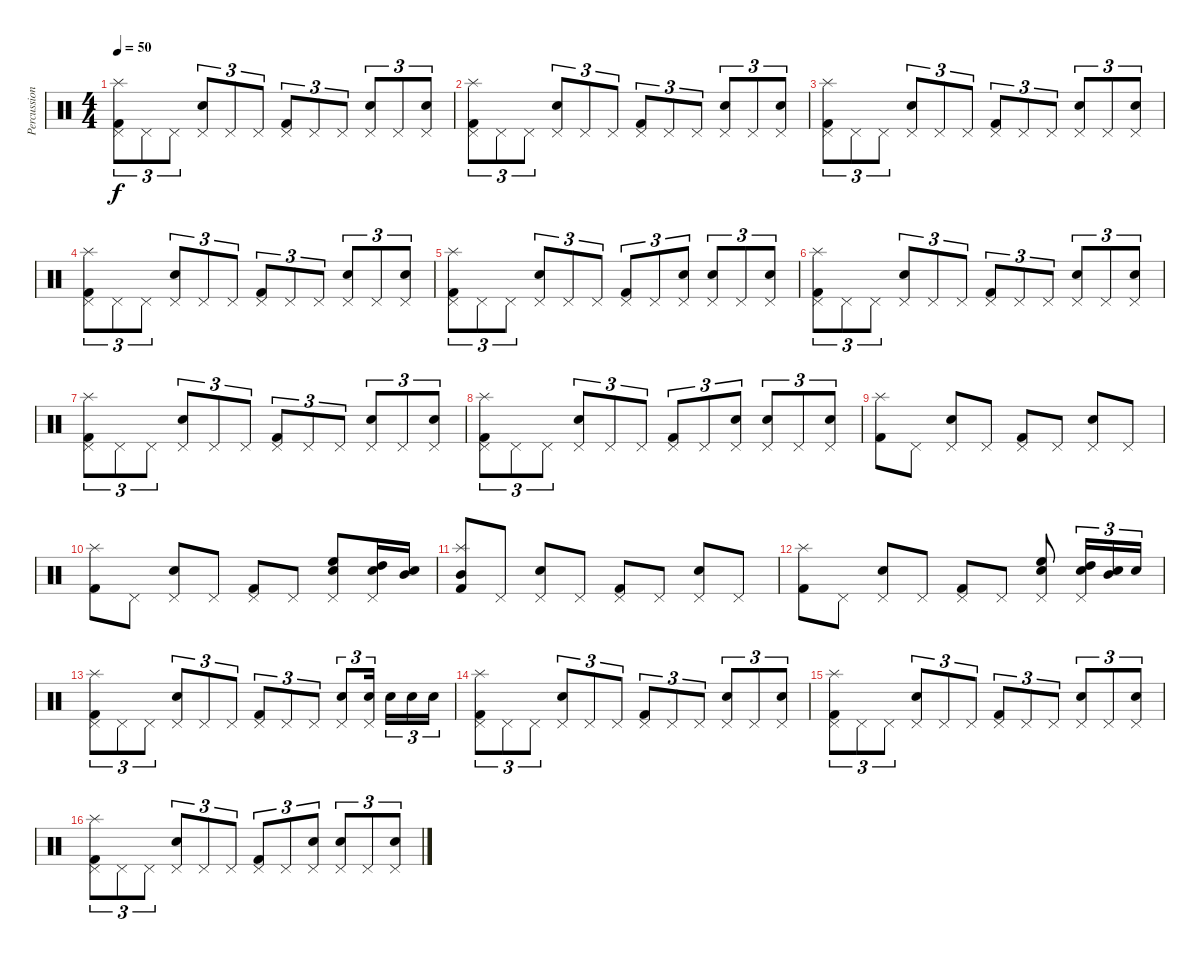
\track ("Percussion" "Percussion") {instrument percussion}
\staff {score}
\articulation defaults
\ts (4 4)
\tempo 50
\clef neutral
\ks c
("Pedal Hi-Hat (hit)" "Kick (hit) 2" "Splash (hit)").8{tu (3 2) dy f} "Pedal Hi-Hat (hit)".8{tu (3 2)} "Pedal Hi-Hat (hit)".8{tu (3 2)} ("Pedal Hi-Hat (hit)" "Electric Snare (hit)").8{tu (3 2)} "Pedal Hi-Hat (hit)".8{tu (3 2)} "Pedal Hi-Hat (hit)".8{tu (3 2)} ("Pedal Hi-Hat (hit)" "Kick (hit) 2").8{tu (3 2)} "Pedal Hi-Hat (hit)".8{tu (3 2)} "Pedal Hi-Hat (hit)".8{tu (3 2)} ("Pedal Hi-Hat (hit)" "Electric Snare (hit)").8{tu (3 2)} "Pedal Hi-Hat (hit)".8{tu (3 2)} ("Pedal Hi-Hat (hit)" "Electric Snare (hit)").8{tu (3 2)} |
("Pedal Hi-Hat (hit)" "Kick (hit) 2" "Splash (hit)").8{tu (3 2)} "Pedal Hi-Hat (hit)".8{tu (3 2)} "Pedal Hi-Hat (hit)".8{tu (3 2)} ("Pedal Hi-Hat (hit)" "Electric Snare (hit)").8{tu (3 2)} "Pedal Hi-Hat (hit)".8{tu (3 2)} "Pedal Hi-Hat (hit)".8{tu (3 2)} ("Pedal Hi-Hat (hit)" "Kick (hit) 2").8{tu (3 2)} "Pedal Hi-Hat (hit)".8{tu (3 2)} "Pedal Hi-Hat (hit)".8{tu (3 2)} ("Pedal Hi-Hat (hit)" "Electric Snare (hit)").8{tu (3 2)} "Pedal Hi-Hat (hit)".8{tu (3 2)} ("Pedal Hi-Hat (hit)" "Electric Snare (hit)").8{tu (3 2)} |
("Pedal Hi-Hat (hit)" "Kick (hit) 2" "Splash (hit)").8{tu (3 2)} "Pedal Hi-Hat (hit)".8{tu (3 2)} "Pedal Hi-Hat (hit)".8{tu (3 2)} ("Pedal Hi-Hat (hit)" "Electric Snare (hit)").8{tu (3 2)} "Pedal Hi-Hat (hit)".8{tu (3 2)} "Pedal Hi-Hat (hit)".8{tu (3 2)} ("Pedal Hi-Hat (hit)" "Kick (hit) 2").8{tu (3 2)} "Pedal Hi-Hat (hit)".8{tu (3 2)} "Pedal Hi-Hat (hit)".8{tu (3 2)} ("Pedal Hi-Hat (hit)" "Electric Snare (hit)").8{tu (3 2)} "Pedal Hi-Hat (hit)".8{tu (3 2)} ("Pedal Hi-Hat (hit)" "Electric Snare (hit)").8{tu (3 2)} |
("Pedal Hi-Hat (hit)" "Kick (hit) 2" "Splash (hit)").8{tu (3 2)} "Pedal Hi-Hat (hit)".8{tu (3 2)} "Pedal Hi-Hat (hit)".8{tu (3 2)} ("Pedal Hi-Hat (hit)" "Electric Snare (hit)").8{tu (3 2)} "Pedal Hi-Hat (hit)".8{tu (3 2)} "Pedal Hi-Hat (hit)".8{tu (3 2)} ("Pedal Hi-Hat (hit)" "Kick (hit) 2").8{tu (3 2)} "Pedal Hi-Hat (hit)".8{tu (3 2)} "Pedal Hi-Hat (hit)".8{tu (3 2)} ("Pedal Hi-Hat (hit)" "Electric Snare (hit)").8{tu (3 2)} "Pedal Hi-Hat (hit)".8{tu (3 2)} ("Pedal Hi-Hat (hit)" "Electric Snare (hit)").8{tu (3 2)} |
("Pedal Hi-Hat (hit)" "Kick (hit) 2" "Splash (hit)").8{tu (3 2)} "Pedal Hi-Hat (hit)".8{tu (3 2)} "Pedal Hi-Hat (hit)".8{tu (3 2)} ("Pedal Hi-Hat (hit)" "Electric Snare (hit)").8{tu (3 2)} "Pedal Hi-Hat (hit)".8{tu (3 2)} "Pedal Hi-Hat (hit)".8{tu (3 2)} ("Pedal Hi-Hat (hit)" "Kick (hit) 2").8{tu (3 2)} "Pedal Hi-Hat (hit)".8{tu (3 2)} ("Pedal Hi-Hat (hit)" "Electric Snare (hit)").8{tu (3 2)} ("Pedal Hi-Hat (hit)" "Electric Snare (hit)").8{tu (3 2)} "Pedal Hi-Hat (hit)".8{tu (3 2)} ("Pedal Hi-Hat (hit)" "Electric Snare (hit)").8{tu (3 2)} |
("Pedal Hi-Hat (hit)" "Kick (hit) 2" "Splash (hit)").8{tu (3 2)} "Pedal Hi-Hat (hit)".8{tu (3 2)} "Pedal Hi-Hat (hit)".8{tu (3 2)} ("Pedal Hi-Hat (hit)" "Electric Snare (hit)").8{tu (3 2)} "Pedal Hi-Hat (hit)".8{tu (3 2)} "Pedal Hi-Hat (hit)".8{tu (3 2)} ("Pedal Hi-Hat (hit)" "Kick (hit) 2").8{tu (3 2)} "Pedal Hi-Hat (hit)".8{tu (3 2)} "Pedal Hi-Hat (hit)".8{tu (3 2)} ("Pedal Hi-Hat (hit)" "Electric Snare (hit)").8{tu (3 2)} "Pedal Hi-Hat (hit)".8{tu (3 2)} ("Pedal Hi-Hat (hit)" "Electric Snare (hit)").8{tu (3 2)} |
("Pedal Hi-Hat (hit)" "Kick (hit) 2" "Splash (hit)").8{tu (3 2)} "Pedal Hi-Hat (hit)".8{tu (3 2)} "Pedal Hi-Hat (hit)".8{tu (3 2)} ("Pedal Hi-Hat (hit)" "Electric Snare (hit)").8{tu (3 2)} "Pedal Hi-Hat (hit)".8{tu (3 2)} "Pedal Hi-Hat (hit)".8{tu (3 2)} ("Pedal Hi-Hat (hit)" "Kick (hit) 2").8{tu (3 2)} "Pedal Hi-Hat (hit)".8{tu (3 2)} "Pedal Hi-Hat (hit)".8{tu (3 2)} ("Pedal Hi-Hat (hit)" "Electric Snare (hit)").8{tu (3 2)} "Pedal Hi-Hat (hit)".8{tu (3 2)} ("Pedal Hi-Hat (hit)" "Electric Snare (hit)").8{tu (3 2)} |
("Pedal Hi-Hat (hit)" "Kick (hit) 2" "Splash (hit)").8{tu (3 2)} "Pedal Hi-Hat (hit)".8{tu (3 2)} "Pedal Hi-Hat (hit)".8{tu (3 2)} ("Pedal Hi-Hat (hit)" "Electric Snare (hit)").8{tu (3 2)} "Pedal Hi-Hat (hit)".8{tu (3 2)} "Pedal Hi-Hat (hit)".8{tu (3 2)} ("Pedal Hi-Hat (hit)" "Kick (hit) 2").8{tu (3 2)} "Pedal Hi-Hat (hit)".8{tu (3 2)} ("Pedal Hi-Hat (hit)" "Electric Snare (hit)").8{tu (3 2)} ("Pedal Hi-Hat (hit)" "Electric Snare (hit)").8{tu (3 2)} "Pedal Hi-Hat (hit)".8{tu (3 2)} ("Pedal Hi-Hat (hit)" "Electric Snare (hit)").8{tu (3 2)} |
("Splash (hit)" "Kick (hit) 2").8 "Pedal Hi-Hat (hit)".8 ("Pedal Hi-Hat (hit)" "Electric Snare (hit)").8 "Pedal Hi-Hat (hit)".8 ("Pedal Hi-Hat (hit)" "Kick (hit) 2").8 "Pedal Hi-Hat (hit)".8 ("Pedal Hi-Hat (hit)" "Electric Snare (hit)").8 "Pedal Hi-Hat (hit)".8 |
("Splash (hit)" "Kick (hit) 2").8 "Pedal Hi-Hat (hit)".8 ("Pedal Hi-Hat (hit)" "Electric Snare (hit)").8 "Pedal Hi-Hat (hit)".8 ("Pedal Hi-Hat (hit)" "Kick (hit) 2").8 "Pedal Hi-Hat (hit)".8 ("Pedal Hi-Hat (hit)" "Electric Snare (hit)" "High Floor Tom (hit)").8 ("Pedal Hi-Hat (hit)" "Electric Snare (hit)" "High Tom (hit)").16 ("Electric Snare (hit)" "Mid Tom (hit)").16 |
("Splash (hit)" "Kick (hit) 2" "Mid Tom (hit)").8 "Pedal Hi-Hat (hit)".8 ("Pedal Hi-Hat (hit)" "Electric Snare (hit)").8 "Pedal Hi-Hat (hit)".8 ("Pedal Hi-Hat (hit)" "Kick (hit) 2").8 "Pedal Hi-Hat (hit)".8 ("Pedal Hi-Hat (hit)" "Electric Snare (hit)").8 "Pedal Hi-Hat (hit)".8 |
("Splash (hit)" "Kick (hit) 2").8 "Pedal Hi-Hat (hit)".8 ("Pedal Hi-Hat (hit)" "Electric Snare (hit)").8 "Pedal Hi-Hat (hit)".8 ("Pedal Hi-Hat (hit)" "Kick (hit) 2").8 "Pedal Hi-Hat (hit)".8 ("Pedal Hi-Hat (hit)" "Electric Snare (hit)" "High Floor Tom (hit)").8 ("Pedal Hi-Hat (hit)" "Electric Snare (hit)" "High Tom (hit)").16{tu (3 2)} ("Electric Snare (hit)" "Mid Tom (hit)").16{tu (3 2)} "Electric Snare (hit)".16{tu (3 2)} |
("Pedal Hi-Hat (hit)" "Kick (hit) 2" "Splash (hit)").8{tu (3 2)} "Pedal Hi-Hat (hit)".8{tu (3 2)} "Pedal Hi-Hat (hit)".8{tu (3 2)} ("Pedal Hi-Hat (hit)" "Electric Snare (hit)").8{tu (3 2)} "Pedal Hi-Hat (hit)".8{tu (3 2)} "Pedal Hi-Hat (hit)".8{tu (3 2)} ("Pedal Hi-Hat (hit)" "Kick (hit) 2").8{tu (3 2)} "Pedal Hi-Hat (hit)".8{tu (3 2)} "Pedal Hi-Hat (hit)".8{tu (3 2)} ("Pedal Hi-Hat (hit)" "Electric Snare (hit)").8{tu (3 2)} ("Pedal Hi-Hat (hit)" "Electric Snare (hit)").16{tu (3 2)} "Electric Snare (hit)".16{tu (3 2)} "Electric Snare (hit)".16{tu (3 2)} "Electric Snare (hit)".16{tu (3 2)} |
("Pedal Hi-Hat (hit)" "Kick (hit) 2" "Splash (hit)").8{tu (3 2)} "Pedal Hi-Hat (hit)".8{tu (3 2)} "Pedal Hi-Hat (hit)".8{tu (3 2)} ("Pedal Hi-Hat (hit)" "Electric Snare (hit)").8{tu (3 2)} "Pedal Hi-Hat (hit)".8{tu (3 2)} "Pedal Hi-Hat (hit)".8{tu (3 2)} ("Pedal Hi-Hat (hit)" "Kick (hit) 2").8{tu (3 2)} "Pedal Hi-Hat (hit)".8{tu (3 2)} "Pedal Hi-Hat (hit)".8{tu (3 2)} ("Pedal Hi-Hat (hit)" "Electric Snare (hit)").8{tu (3 2)} "Pedal Hi-Hat (hit)".8{tu (3 2)} ("Pedal Hi-Hat (hit)" "Electric Snare (hit)").8{tu (3 2)} |
("Pedal Hi-Hat (hit)" "Kick (hit) 2" "Splash (hit)").8{tu (3 2)} "Pedal Hi-Hat (hit)".8{tu (3 2)} "Pedal Hi-Hat (hit)".8{tu (3 2)} ("Pedal Hi-Hat (hit)" "Electric Snare (hit)").8{tu (3 2)} "Pedal Hi-Hat (hit)".8{tu (3 2)} "Pedal Hi-Hat (hit)".8{tu (3 2)} ("Pedal Hi-Hat (hit)" "Kick (hit) 2").8{tu (3 2)} "Pedal Hi-Hat (hit)".8{tu (3 2)} "Pedal Hi-Hat (hit)".8{tu (3 2)} ("Pedal Hi-Hat (hit)" "Electric Snare (hit)").8{tu (3 2)} "Pedal Hi-Hat (hit)".8{tu (3 2)} ("Pedal Hi-Hat (hit)" "Electric Snare (hit)").8{tu (3 2)} |
("Pedal Hi-Hat (hit)" "Kick (hit) 2" "Splash (hit)").8{tu (3 2)} "Pedal Hi-Hat (hit)".8{tu (3 2)} "Pedal Hi-Hat (hit)".8{tu (3 2)} ("Pedal Hi-Hat (hit)" "Electric Snare (hit)").8{tu (3 2)} "Pedal Hi-Hat (hit)".8{tu (3 2)} "Pedal Hi-Hat (hit)".8{tu (3 2)} ("Pedal Hi-Hat (hit)" "Kick (hit) 2").8{tu (3 2)} "Pedal Hi-Hat (hit)".8{tu (3 2)} ("Pedal Hi-Hat (hit)" "Electric Snare (hit)").8{tu (3 2)} ("Pedal Hi-Hat (hit)" "Electric Snare (hit)").8{tu (3 2)} "Pedal Hi-Hat (hit)".8{tu (3 2)} ("Pedal Hi-Hat (hit)" "Electric Snare (hit)").8{tu (3 2)}
